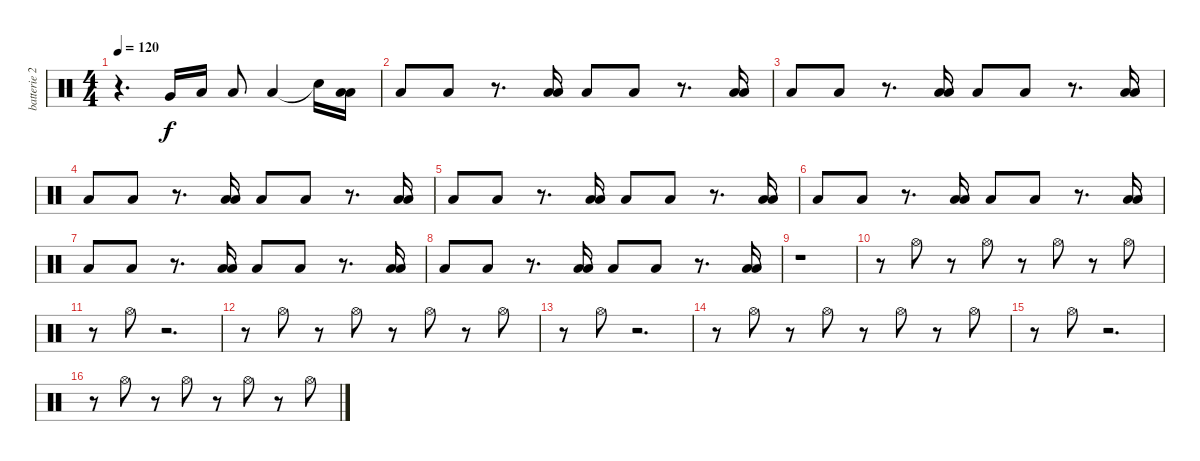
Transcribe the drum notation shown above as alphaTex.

\track ("batterie 2" "batterie 2") {instrument percussion}
\staff {score}
\articulation defaults
\ts (4 4)
\tempo 120
\clef neutral
\ks c
r.4{d dy f} "Very Low Tom (hit)".16 "Low Floor Tom (hit)".16 "Low Floor Tom (hit)".8 "Low Floor Tom (hit)".4 "Snare (hit)"{t}.16 ("Low Floor Tom (hit)" "Low Tom (hit)").16 |
"Low Floor Tom (hit)".8 "Low Floor Tom (hit)".8 r.8{d} ("Low Floor Tom (hit)" "Low Tom (hit)").16 "Low Floor Tom (hit)".8 "Low Floor Tom (hit)".8 r.8{d} ("Low Floor Tom (hit)" "Low Tom (hit)").16 |
"Low Floor Tom (hit)".8 "Low Floor Tom (hit)".8 r.8{d} ("Low Floor Tom (hit)" "Low Tom (hit)").16 "Low Floor Tom (hit)".8 "Low Floor Tom (hit)".8 r.8{d} ("Low Floor Tom (hit)" "Low Tom (hit)").16 |
"Low Floor Tom (hit)".8 "Low Floor Tom (hit)".8 r.8{d} ("Low Floor Tom (hit)" "Low Tom (hit)").16 "Low Floor Tom (hit)".8 "Low Floor Tom (hit)".8 r.8{d} ("Low Floor Tom (hit)" "Low Tom (hit)").16 |
"Low Floor Tom (hit)".8 "Low Floor Tom (hit)".8 r.8{d} ("Low Floor Tom (hit)" "Low Tom (hit)").16 "Low Floor Tom (hit)".8 "Low Floor Tom (hit)".8 r.8{d} ("Low Floor Tom (hit)" "Low Tom (hit)").16 |
"Low Floor Tom (hit)".8 "Low Floor Tom (hit)".8 r.8{d} ("Low Floor Tom (hit)" "Low Tom (hit)").16 "Low Floor Tom (hit)".8 "Low Floor Tom (hit)".8 r.8{d} ("Low Floor Tom (hit)" "Low Tom (hit)").16 |
"Low Floor Tom (hit)".8 "Low Floor Tom (hit)".8 r.8{d} ("Low Floor Tom (hit)" "Low Tom (hit)").16 "Low Floor Tom (hit)".8 "Low Floor Tom (hit)".8 r.8{d} ("Low Floor Tom (hit)" "Low Tom (hit)").16 |
"Low Floor Tom (hit)".8 "Low Floor Tom (hit)".8 r.8{d} ("Low Floor Tom (hit)" "Low Tom (hit)").16 "Low Floor Tom (hit)".8 "Low Floor Tom (hit)".8 r.8{d} ("Low Floor Tom (hit)" "Low Tom (hit)").16 |
r.1 |
r.8 "Hi-Hat (open)".8 r.8 "Hi-Hat (open)".8 r.8 "Hi-Hat (open)".8 r.8 "Hi-Hat (open)".8 |
r.8 "Hi-Hat (open)".8 r.2{d} |
r.8 "Hi-Hat (open)".8 r.8 "Hi-Hat (open)".8 r.8 "Hi-Hat (open)".8 r.8 "Hi-Hat (open)".8 |
r.8 "Hi-Hat (open)".8 r.2{d} |
r.8 "Hi-Hat (open)".8 r.8 "Hi-Hat (open)".8 r.8 "Hi-Hat (open)".8 r.8 "Hi-Hat (open)".8 |
r.8 "Hi-Hat (open)".8 r.2{d} |
r.8 "Hi-Hat (open)".8 r.8 "Hi-Hat (open)".8 r.8 "Hi-Hat (open)".8 r.8 "Hi-Hat (open)".8
